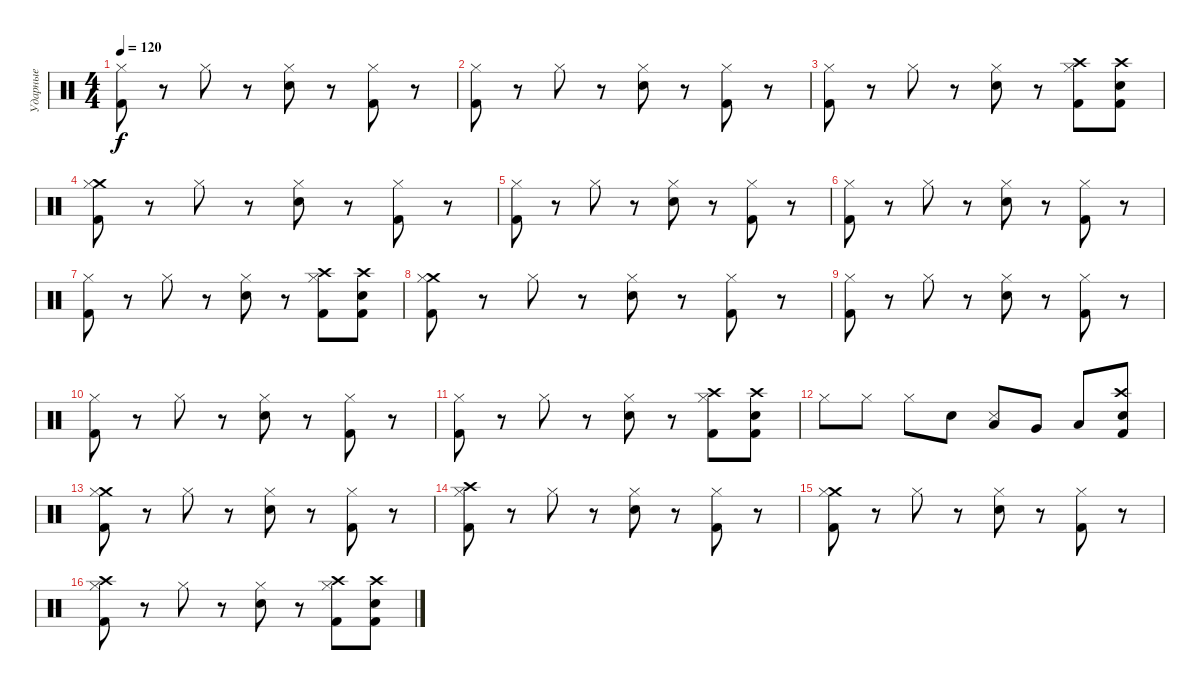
\track ("Ударные" "Ударные") {instrument percussion}
\staff {score}
\articulation defaults
\ts (4 4)
\tempo 120
\clef neutral
\ks c
("Hi-Hat (closed)" "Kick (hit) 2").8{dy f} r.8 "Hi-Hat (closed)".8 r.8 ("Snare (hit) 2" "Hi-Hat (closed)").8 r.8 ("Hi-Hat (closed)" "Kick (hit) 2").8 r.8 |
("Hi-Hat (closed)" "Kick (hit) 2").8 r.8 "Hi-Hat (closed)".8 r.8 ("Snare (hit) 2" "Hi-Hat (closed)").8 r.8 ("Hi-Hat (closed)" "Kick (hit) 2").8 r.8 |
("Hi-Hat (closed)" "Kick (hit) 2").8 r.8 "Hi-Hat (closed)".8 r.8 ("Snare (hit) 2" "Hi-Hat (closed)").8 r.8 ("Hi-Hat (closed)" "Crash high (hit)" "Kick (hit) 2").8 ("Snare (hit) 2" "Crash high (hit)" "Kick (hit) 2").8 |
("Crash medium (hit)" "Hi-Hat (closed)" "Kick (hit) 2").8 r.8 "Hi-Hat (closed)".8 r.8 ("Snare (hit) 2" "Hi-Hat (closed)").8 r.8 ("Hi-Hat (closed)" "Kick (hit) 2").8 r.8 |
("Hi-Hat (closed)" "Kick (hit) 2").8 r.8 "Hi-Hat (closed)".8 r.8 ("Snare (hit) 2" "Hi-Hat (closed)").8 r.8 ("Hi-Hat (closed)" "Kick (hit) 2").8 r.8 |
("Hi-Hat (closed)" "Kick (hit) 2").8 r.8 "Hi-Hat (closed)".8 r.8 ("Snare (hit) 2" "Hi-Hat (closed)").8 r.8 ("Hi-Hat (closed)" "Kick (hit) 2").8 r.8 |
("Hi-Hat (closed)" "Kick (hit) 2").8 r.8 "Hi-Hat (closed)".8 r.8 ("Snare (hit) 2" "Hi-Hat (closed)").8 r.8 ("Hi-Hat (closed)" "Crash high (hit)" "Kick (hit) 2").8 ("Snare (hit) 2" "Crash high (hit)" "Kick (hit) 2").8 |
("Crash medium (hit)" "Hi-Hat (closed)" "Kick (hit) 2").8 r.8 "Hi-Hat (closed)".8 r.8 ("Snare (hit) 2" "Hi-Hat (closed)").8 r.8 ("Hi-Hat (closed)" "Kick (hit) 2").8 r.8 |
("Hi-Hat (closed)" "Kick (hit) 2").8 r.8 "Hi-Hat (closed)".8 r.8 ("Snare (hit) 2" "Hi-Hat (closed)").8 r.8 ("Hi-Hat (closed)" "Kick (hit) 2").8 r.8 |
("Hi-Hat (closed)" "Kick (hit) 2").8 r.8 "Hi-Hat (closed)".8 r.8 ("Snare (hit) 2" "Hi-Hat (closed)").8 r.8 ("Hi-Hat (closed)" "Kick (hit) 2").8 r.8 |
("Hi-Hat (closed)" "Kick (hit) 2").8 r.8 "Hi-Hat (closed)".8 r.8 ("Snare (hit) 2" "Hi-Hat (closed)").8 r.8 ("Hi-Hat (closed)" "Crash high (hit)" "Kick (hit) 2").8 ("Snare (hit) 2" "Crash high (hit)" "Kick (hit) 2").8 |
"Hi-Hat (closed)".8 "Hi-Hat (closed)".8 "Hi-Hat (closed)".8 "Electric Snare (hit)".8 ("Low Floor Tom (hit)" "Snare (side stick) 3").8 "Very Low Tom (hit)".8 "Low Tom (hit)".8 ("Crash high (hit)" "Kick (hit) 2" "Electric Snare (hit)").8 |
("Crash medium (hit)" "Hi-Hat (closed)" "Kick (hit) 2").8 r.8 "Hi-Hat (closed)".8 r.8 ("Snare (hit) 2" "Hi-Hat (closed)").8 r.8 ("Hi-Hat (closed)" "Kick (hit) 2").8 r.8 |
("Crash high (hit)" "Hi-Hat (closed)" "Kick (hit) 2").8 r.8 "Hi-Hat (closed)".8 r.8 ("Snare (hit) 2" "Hi-Hat (closed)").8 r.8 ("Hi-Hat (closed)" "Kick (hit) 2").8 r.8 |
("Crash medium (hit)" "Hi-Hat (closed)" "Kick (hit) 2").8 r.8 "Hi-Hat (closed)".8 r.8 ("Snare (hit) 2" "Hi-Hat (closed)").8 r.8 ("Hi-Hat (closed)" "Kick (hit) 2").8 r.8 |
("Crash high (hit)" "Hi-Hat (closed)" "Kick (hit) 2").8 r.8 "Hi-Hat (closed)".8 r.8 ("Snare (hit) 2" "Hi-Hat (closed)").8 r.8 ("Hi-Hat (closed)" "Crash high (hit)" "Kick (hit) 2").8 ("Snare (hit) 2" "Crash high (hit)" "Kick (hit) 2").8
